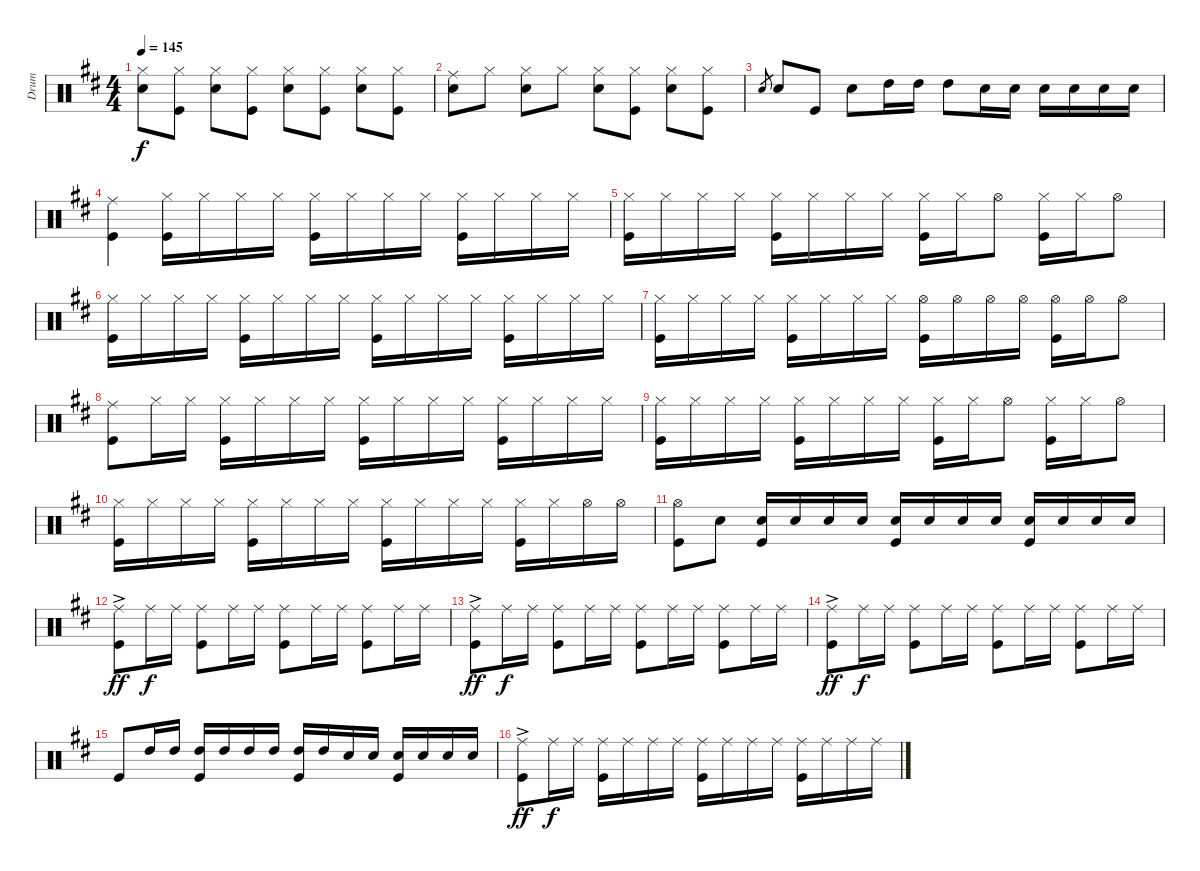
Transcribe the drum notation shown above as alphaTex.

\track ("     Drum" "     Drum") {instrument percussion}
\staff {score}
\articulation defaults
\ts (4 4)
\tempo 145
\clef neutral
\ks d
("Hi-Hat (closed)" "Snare (hit) 2").8{dy f} ("Hi-Hat (closed)" "Kick (hit)").8 ("Hi-Hat (closed)" "Snare (hit) 2").8 ("Hi-Hat (closed)" "Kick (hit)").8 ("Hi-Hat (closed)" "Snare (hit) 2").8 ("Hi-Hat (closed)" "Kick (hit)").8 ("Hi-Hat (closed)" "Snare (hit) 2").8 ("Hi-Hat (closed)" "Kick (hit)").8 |
("Ride (middle)" "Snare (hit) 2").8 "Hi-Hat (closed)".8 ("Hi-Hat (closed)" "Snare (hit) 2").8 "Hi-Hat (closed)".8 ("Hi-Hat (closed)" "Snare (hit) 2").8 ("Hi-Hat (closed)" "Kick (hit)").8 ("Hi-Hat (closed)" "Snare (hit) 2").8 ("Hi-Hat (closed)" "Kick (hit)").8 |
"Snare (hit) 2"{sl}.8{gr} "Snare (hit) 2".8 "Kick (hit)".8 "Snare (hit) 2".8 "High Tom (hit)".16 "High Tom (hit)".16 "High Tom (hit)".8 "Snare (hit) 2".16 "Snare (hit) 2".16 "Snare (hit) 2".16 "Snare (hit) 2".16 "Snare (hit) 2".16 "Snare (hit) 2".16 |
("Ride (middle)" "Kick (hit)").4 ("Hi-Hat (closed)" "Kick (hit)").16 "Hi-Hat (closed)".16 "Hi-Hat (closed)".16 "Hi-Hat (closed)".16 ("Hi-Hat (closed)" "Kick (hit)").16 "Hi-Hat (closed)".16 "Hi-Hat (closed)".16 "Hi-Hat (closed)".16 ("Hi-Hat (closed)" "Kick (hit)").16 "Hi-Hat (closed)".16 "Hi-Hat (closed)".16 "Hi-Hat (closed)".16 |
("Hi-Hat (closed)" "Kick (hit)").16 "Hi-Hat (closed)".16 "Hi-Hat (closed)".16 "Hi-Hat (closed)".16 ("Hi-Hat (closed)" "Kick (hit)").16 "Hi-Hat (closed)".16 "Hi-Hat (closed)".16 "Hi-Hat (closed)".16 ("Hi-Hat (closed)" "Kick (hit)").16 "Hi-Hat (closed)".16 "Hi-Hat (open)".8 ("Hi-Hat (closed)" "Kick (hit)").16 "Hi-Hat (closed)".16 "Hi-Hat (open)".8 |
("Hi-Hat (closed)" "Kick (hit)").16 "Hi-Hat (closed)".16 "Hi-Hat (closed)".16 "Hi-Hat (closed)".16 ("Hi-Hat (closed)" "Kick (hit)").16 "Hi-Hat (closed)".16 "Hi-Hat (closed)".16 "Hi-Hat (closed)".16 ("Hi-Hat (closed)" "Kick (hit)").16 "Hi-Hat (closed)".16 "Hi-Hat (closed)".16 "Hi-Hat (closed)".16 ("Hi-Hat (closed)" "Kick (hit)").16 "Hi-Hat (closed)".16 "Hi-Hat (closed)".16 "Hi-Hat (closed)".16 |
("Hi-Hat (closed)" "Kick (hit)").16 "Hi-Hat (closed)".16 "Hi-Hat (closed)".16 "Hi-Hat (closed)".16 ("Hi-Hat (closed)" "Kick (hit)").16 "Hi-Hat (closed)".16 "Hi-Hat (closed)".16 "Hi-Hat (closed)".16 ("Hi-Hat (open)" "Kick (hit)").16 "Hi-Hat (open)".16 "Hi-Hat (open)".16 "Hi-Hat (open)".16 ("Hi-Hat (open)" "Kick (hit)").16 "Hi-Hat (open)".16 "Hi-Hat (open)".8 |
("Ride (middle)" "Kick (hit)").8 "Hi-Hat (closed)".16 "Hi-Hat (closed)".16 ("Hi-Hat (closed)" "Kick (hit)").16 "Hi-Hat (closed)".16 "Hi-Hat (closed)".16 "Hi-Hat (closed)".16 ("Hi-Hat (closed)" "Kick (hit)").16 "Hi-Hat (closed)".16 "Hi-Hat (closed)".16 "Hi-Hat (closed)".16 ("Hi-Hat (closed)" "Kick (hit)").16 "Hi-Hat (closed)".16 "Hi-Hat (closed)".16 "Hi-Hat (closed)".16 |
("Hi-Hat (closed)" "Kick (hit)").16 "Hi-Hat (closed)".16 "Hi-Hat (closed)".16 "Hi-Hat (closed)".16 ("Hi-Hat (closed)" "Kick (hit)").16 "Hi-Hat (closed)".16 "Hi-Hat (closed)".16 "Hi-Hat (closed)".16 ("Hi-Hat (closed)" "Kick (hit)").16 "Hi-Hat (closed)".16 "Hi-Hat (open)".8 ("Hi-Hat (closed)" "Kick (hit)").16 "Hi-Hat (closed)".16 "Hi-Hat (open)".8 |
("Hi-Hat (closed)" "Kick (hit)").16 "Hi-Hat (closed)".16 "Hi-Hat (closed)".16 "Hi-Hat (closed)".16 ("Hi-Hat (closed)" "Kick (hit)").16 "Hi-Hat (closed)".16 "Hi-Hat (closed)".16 "Hi-Hat (closed)".16 ("Hi-Hat (closed)" "Kick (hit)").16 "Hi-Hat (closed)".16 "Hi-Hat (closed)".16 "Hi-Hat (closed)".16 ("Hi-Hat (closed)" "Kick (hit)").16 "Hi-Hat (closed)".16 "Hi-Hat (open)".16 "Hi-Hat (open)".16 |
("Hi-Hat (open)" "Kick (hit)").8 "Snare (hit) 2".8 ("Snare (hit) 2" "Kick (hit)").16 "Snare (hit) 2".16 "Snare (hit) 2".16 "Snare (hit) 2".16 ("Snare (hit) 2" "Kick (hit)").16 "Snare (hit) 2".16 "Snare (hit) 2".16 "Snare (hit) 2".16 ("Snare (hit) 2" "Kick (hit)").16 "Snare (hit) 2".16 "Snare (hit) 2".16 "Snare (hit) 2".16 |
("Ride (middle)"{ac} "Kick (hit)").8{dy ff} "Ride (middle)".16{dy f} "Ride (middle)".16 ("Ride (middle)" "Kick (hit)").8 "Ride (middle)".16 "Ride (middle)".16 ("Ride (middle)" "Kick (hit)").8 "Ride (middle)".16 "Ride (middle)".16 ("Ride (middle)" "Kick (hit)").8 "Ride (middle)".16 "Ride (middle)".16 |
("Ride (middle)"{ac} "Kick (hit)").8{dy ff} "Ride (middle)".16{dy f} "Ride (middle)".16 ("Ride (middle)" "Kick (hit)").8 "Ride (middle)".16 "Ride (middle)".16 ("Ride (middle)" "Kick (hit)").8 "Ride (middle)".16 "Ride (middle)".16 ("Ride (middle)" "Kick (hit)").8 "Ride (middle)".16 "Ride (middle)".16 |
("Ride (middle)"{ac} "Kick (hit)").8{dy ff} "Ride (middle)".16{dy f} "Ride (middle)".16 ("Ride (middle)" "Kick (hit)").8 "Ride (middle)".16 "Ride (middle)".16 ("Ride (middle)" "Kick (hit)").8 "Ride (middle)".16 "Ride (middle)".16 ("Ride (middle)" "Kick (hit)").8 "Ride (middle)".16 "Ride (middle)".16 |
"Kick (hit)".8 "High Tom (hit)".16 "High Tom (hit)".16 ("High Tom (hit)" "Kick (hit)").16 "High Tom (hit)".16 "High Tom (hit)".16 "High Tom (hit)".16 ("High Tom (hit)" "Kick (hit)").16 "High Tom (hit)".16 "Snare (hit) 2".16 "Snare (hit) 2".16 ("Snare (hit) 2" "Kick (hit)").16 "Snare (hit) 2".16 "Snare (hit) 2".16 "Snare (hit) 2".16 |
("Ride (middle)"{ac} "Kick (hit)").8{dy ff} "Ride (middle)".16{dy f} "Ride (middle)".16 ("Ride (middle)" "Kick (hit)").16 "Ride (middle)".16 "Ride (middle)".16 "Ride (middle)".16 ("Ride (middle)" "Kick (hit)").16 "Ride (middle)".16 "Ride (middle)".16 "Ride (middle)".16 ("Ride (middle)" "Kick (hit)").16 "Ride (middle)".16 "Ride (middle)".16 "Ride (middle)".16
